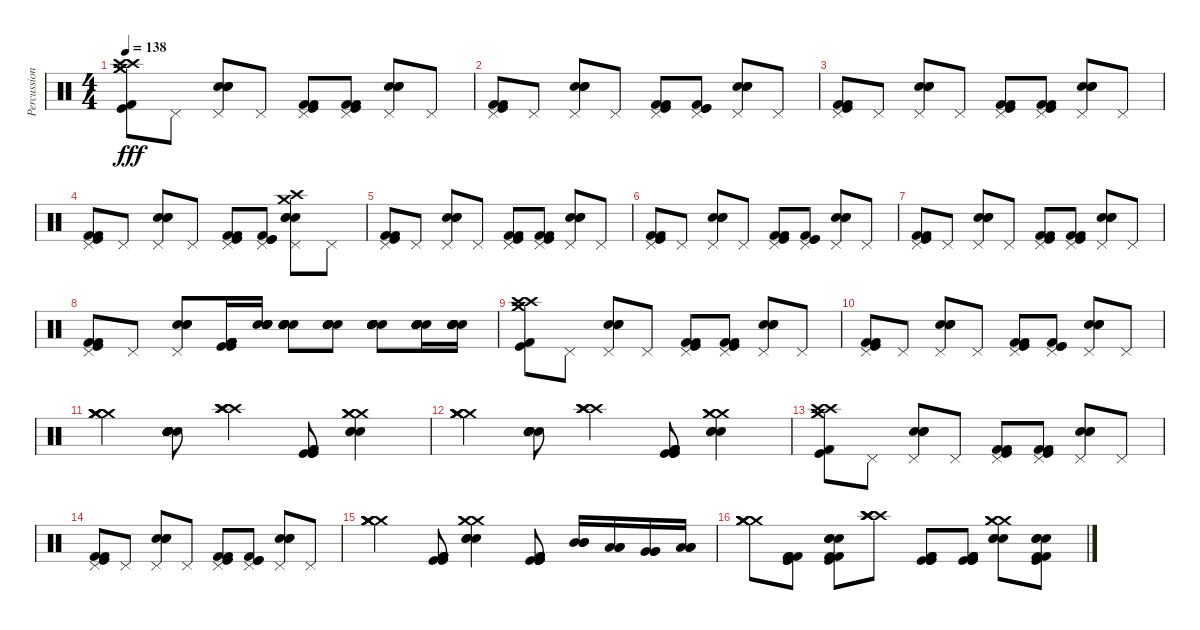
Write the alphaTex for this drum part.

\track ("Percussion" "Percussion") {instrument percussion}
\staff {score}
\articulation defaults
\ts (4 4)
\tempo 138
\clef neutral
\ks c
("Crash high (hit)" "Crash medium (hit)" "Kick (hit)" "Crash high (hit)" "Crash medium (hit)" "Kick (hit) 2").8{dy fff} "Pedal Hi-Hat (hit)".8 ("Pedal Hi-Hat (hit)" "Electric Snare (hit)" "Snare (hit) 2" "Electric Snare (hit)").8 "Pedal Hi-Hat (hit)".8 ("Pedal Hi-Hat (hit)" "Kick (hit) 2" "Kick (hit)" "Kick (hit) 2").8 ("Pedal Hi-Hat (hit)" "Kick (hit) 2" "Kick (hit)" "Kick (hit) 2").8 ("Pedal Hi-Hat (hit)" "Electric Snare (hit)" "Snare (hit) 2" "Electric Snare (hit)").8 "Pedal Hi-Hat (hit)".8 |
("Pedal Hi-Hat (hit)" "Kick (hit) 2" "Kick (hit)" "Kick (hit) 2").8 "Pedal Hi-Hat (hit)".8 ("Pedal Hi-Hat (hit)" "Electric Snare (hit)" "Snare (hit) 2" "Electric Snare (hit)").8 "Pedal Hi-Hat (hit)".8 ("Pedal Hi-Hat (hit)" "Kick (hit) 2" "Kick (hit)" "Kick (hit) 2").8 ("Pedal Hi-Hat (hit)" "Kick (hit) 2" "Kick (hit)" "Kick (hit)").8 ("Pedal Hi-Hat (hit)" "Electric Snare (hit)" "Snare (hit) 2" "Electric Snare (hit)").8 "Pedal Hi-Hat (hit)".8 |
("Pedal Hi-Hat (hit)" "Kick (hit) 2" "Kick (hit)" "Kick (hit) 2").8 "Pedal Hi-Hat (hit)".8 ("Pedal Hi-Hat (hit)" "Electric Snare (hit)" "Snare (hit) 2" "Electric Snare (hit)").8 "Pedal Hi-Hat (hit)".8 ("Pedal Hi-Hat (hit)" "Kick (hit) 2" "Kick (hit)" "Kick (hit) 2").8 ("Pedal Hi-Hat (hit)" "Kick (hit) 2" "Kick (hit)" "Kick (hit) 2").8 ("Pedal Hi-Hat (hit)" "Electric Snare (hit)" "Snare (hit) 2" "Electric Snare (hit)").8 "Pedal Hi-Hat (hit)".8 |
("Pedal Hi-Hat (hit)" "Kick (hit) 2" "Kick (hit)" "Kick (hit) 2").8 "Pedal Hi-Hat (hit)".8 ("Pedal Hi-Hat (hit)" "Electric Snare (hit)" "Snare (hit) 2" "Electric Snare (hit)").8 "Pedal Hi-Hat (hit)".8 ("Pedal Hi-Hat (hit)" "Kick (hit) 2" "Kick (hit)" "Kick (hit) 2").8 ("Pedal Hi-Hat (hit)" "Kick (hit) 2" "Kick (hit)" "Kick (hit)").8 ("Pedal Hi-Hat (hit)" "Crash medium (hit)" "Crash high (hit)" "Electric Snare (hit)" "Snare (hit) 2" "Electric Snare (hit)").8 "Pedal Hi-Hat (hit)".8 |
("Pedal Hi-Hat (hit)" "Kick (hit) 2" "Kick (hit)" "Kick (hit) 2").8 "Pedal Hi-Hat (hit)".8 ("Pedal Hi-Hat (hit)" "Electric Snare (hit)" "Snare (hit) 2" "Electric Snare (hit)").8 "Pedal Hi-Hat (hit)".8 ("Pedal Hi-Hat (hit)" "Kick (hit) 2" "Kick (hit)" "Kick (hit) 2").8 ("Pedal Hi-Hat (hit)" "Kick (hit) 2" "Kick (hit)" "Kick (hit) 2").8 ("Pedal Hi-Hat (hit)" "Electric Snare (hit)" "Snare (hit) 2" "Electric Snare (hit)").8 "Pedal Hi-Hat (hit)".8 |
("Pedal Hi-Hat (hit)" "Kick (hit) 2" "Kick (hit)" "Kick (hit) 2").8 "Pedal Hi-Hat (hit)".8 ("Pedal Hi-Hat (hit)" "Electric Snare (hit)" "Snare (hit) 2" "Electric Snare (hit)").8 "Pedal Hi-Hat (hit)".8 ("Pedal Hi-Hat (hit)" "Kick (hit) 2" "Kick (hit)" "Kick (hit) 2").8 ("Pedal Hi-Hat (hit)" "Kick (hit) 2" "Kick (hit)" "Kick (hit)").8 ("Pedal Hi-Hat (hit)" "Electric Snare (hit)" "Snare (hit) 2" "Electric Snare (hit)").8 "Pedal Hi-Hat (hit)".8 |
("Pedal Hi-Hat (hit)" "Kick (hit) 2" "Kick (hit)" "Kick (hit) 2").8 "Pedal Hi-Hat (hit)".8 ("Pedal Hi-Hat (hit)" "Electric Snare (hit)" "Snare (hit) 2" "Electric Snare (hit)").8 "Pedal Hi-Hat (hit)".8 ("Pedal Hi-Hat (hit)" "Kick (hit) 2" "Kick (hit)" "Kick (hit) 2").8 ("Pedal Hi-Hat (hit)" "Kick (hit) 2" "Kick (hit)" "Kick (hit) 2").8 ("Pedal Hi-Hat (hit)" "Electric Snare (hit)" "Snare (hit) 2" "Electric Snare (hit)").8 "Pedal Hi-Hat (hit)".8 |
("Pedal Hi-Hat (hit)" "Kick (hit) 2" "Kick (hit)" "Kick (hit) 2").8 "Pedal Hi-Hat (hit)".8 ("Pedal Hi-Hat (hit)" "Electric Snare (hit)" "Snare (hit) 2" "Electric Snare (hit)").8 ("Kick (hit) 2" "Kick (hit)" "Kick (hit) 2" "Kick (hit) 2" "Kick (hit)" "Kick (hit) 2").16 ("Electric Snare (hit)" "Snare (hit) 2" "Electric Snare (hit)" "Electric Snare (hit)" "Snare (hit) 2" "Electric Snare (hit)").16 ("Electric Snare (hit)" "Snare (hit) 2" "Electric Snare (hit)" "Electric Snare (hit)" "Snare (hit) 2" "Electric Snare (hit)").8 ("Electric Snare (hit)" "Snare (hit) 2" "Electric Snare (hit)" "Electric Snare (hit)" "Snare (hit) 2" "Electric Snare (hit)").8 ("Electric Snare (hit)" "Snare (hit) 2" "Electric Snare (hit)" "Electric Snare (hit)" "Snare (hit) 2" "Electric Snare (hit)").8 ("Electric Snare (hit)" "Snare (hit) 2" "Electric Snare (hit)" "Electric Snare (hit)" "Snare (hit) 2" "Electric Snare (hit)").16 ("Electric Snare (hit)" "Snare (hit) 2" "Electric Snare (hit)" "Electric Snare (hit)" "Snare (hit) 2" "Electric Snare (hit)").16 |
("Crash high (hit)" "Crash medium (hit)" "Kick (hit)" "Crash high (hit)" "Crash medium (hit)" "Kick (hit) 2").8 "Pedal Hi-Hat (hit)".8 ("Pedal Hi-Hat (hit)" "Electric Snare (hit)" "Snare (hit) 2" "Electric Snare (hit)").8 "Pedal Hi-Hat (hit)".8 ("Pedal Hi-Hat (hit)" "Kick (hit) 2" "Kick (hit)" "Kick (hit) 2").8 ("Pedal Hi-Hat (hit)" "Kick (hit) 2" "Kick (hit)" "Kick (hit) 2").8 ("Pedal Hi-Hat (hit)" "Electric Snare (hit)" "Snare (hit) 2" "Electric Snare (hit)").8 "Pedal Hi-Hat (hit)".8 |
("Pedal Hi-Hat (hit)" "Kick (hit) 2" "Kick (hit)" "Kick (hit) 2").8 "Pedal Hi-Hat (hit)".8 ("Pedal Hi-Hat (hit)" "Electric Snare (hit)" "Snare (hit) 2" "Electric Snare (hit)").8 "Pedal Hi-Hat (hit)".8 ("Pedal Hi-Hat (hit)" "Kick (hit) 2" "Kick (hit)" "Kick (hit) 2").8 ("Pedal Hi-Hat (hit)" "Kick (hit) 2" "Kick (hit)" "Kick (hit)").8 ("Pedal Hi-Hat (hit)" "Electric Snare (hit)" "Snare (hit) 2" "Electric Snare (hit)").8 "Pedal Hi-Hat (hit)".8 |
("Crash medium (hit)" "Crash medium (hit)" "Crash medium (hit)" "Crash medium (hit)" "Crash medium (hit)" "Crash medium (hit)").4 ("Electric Snare (hit)" "Snare (hit) 2" "Electric Snare (hit)" "Electric Snare (hit)" "Snare (hit) 2" "Electric Snare (hit)").8 ("Crash high (hit)" "Crash high (hit)" "Crash high (hit)" "Crash high (hit)" "Crash high (hit)" "Crash high (hit)").4 ("Kick (hit)" "Kick (hit) 2" "Kick (hit)" "Kick (hit) 2" "Kick (hit) 2" "Kick (hit)").8 ("Crash medium (hit)" "Crash medium (hit)" "Crash medium (hit)" "Electric Snare (hit)" "Electric Snare (hit)" "Electric Snare (hit)").4 |
("Crash medium (hit)" "Crash medium (hit)" "Crash medium (hit)" "Crash medium (hit)" "Crash medium (hit)" "Crash medium (hit)").4 ("Electric Snare (hit)" "Snare (hit) 2" "Electric Snare (hit)" "Electric Snare (hit)" "Snare (hit) 2" "Electric Snare (hit)").8 ("Crash high (hit)" "Crash high (hit)" "Crash high (hit)" "Crash high (hit)" "Crash high (hit)" "Crash high (hit)").4 ("Kick (hit)" "Kick (hit) 2" "Kick (hit)" "Kick (hit) 2" "Kick (hit) 2" "Kick (hit)").8 ("Crash medium (hit)" "Crash medium (hit)" "Crash medium (hit)" "Electric Snare (hit)" "Electric Snare (hit)" "Electric Snare (hit)").4 |
("Crash high (hit)" "Crash medium (hit)" "Kick (hit)" "Crash high (hit)" "Crash medium (hit)" "Kick (hit) 2").8 "Pedal Hi-Hat (hit)".8 ("Pedal Hi-Hat (hit)" "Electric Snare (hit)" "Snare (hit) 2" "Electric Snare (hit)").8 "Pedal Hi-Hat (hit)".8 ("Pedal Hi-Hat (hit)" "Kick (hit) 2" "Kick (hit)" "Kick (hit) 2").8 ("Pedal Hi-Hat (hit)" "Kick (hit) 2" "Kick (hit)" "Kick (hit) 2").8 ("Pedal Hi-Hat (hit)" "Electric Snare (hit)" "Snare (hit) 2" "Electric Snare (hit)").8 "Pedal Hi-Hat (hit)".8 |
("Pedal Hi-Hat (hit)" "Kick (hit) 2" "Kick (hit)" "Kick (hit) 2").8 "Pedal Hi-Hat (hit)".8 ("Pedal Hi-Hat (hit)" "Electric Snare (hit)" "Snare (hit) 2" "Electric Snare (hit)").8 "Pedal Hi-Hat (hit)".8 ("Pedal Hi-Hat (hit)" "Kick (hit) 2" "Kick (hit)" "Kick (hit) 2").8 ("Pedal Hi-Hat (hit)" "Kick (hit) 2" "Kick (hit)" "Kick (hit)").8 ("Pedal Hi-Hat (hit)" "Electric Snare (hit)" "Snare (hit) 2" "Electric Snare (hit)").8 "Pedal Hi-Hat (hit)".8 |
("Crash medium (hit)" "Crash medium (hit)" "Crash medium (hit)" "Crash medium (hit)" "Crash medium (hit)" "Crash medium (hit)").4 ("Kick (hit) 2" "Kick (hit)" "Kick (hit) 2" "Kick (hit) 2" "Kick (hit)" "Kick (hit) 2").8 ("Crash medium (hit)" "Crash medium (hit)" "Electric Snare (hit)" "Crash medium (hit)" "Snare (hit) 2" "Electric Snare (hit)").4 ("Kick (hit)" "Kick (hit) 2" "Kick (hit)" "Kick (hit)" "Kick (hit) 2" "Kick (hit) 2").8 ("Mid Tom (hit)" "Mid Tom (hit)" "Mid Tom (hit)").16 ("Low Tom (hit)" "Low Tom (hit)" "Low Tom (hit)").16 ("Very Low Tom (hit)" "Very Low Tom (hit)" "Very Low Tom (hit)").16 ("Low Floor Tom (hit)" "Low Floor Tom (hit)" "Low Floor Tom (hit)").16 |
("Crash medium (hit)" "Crash medium (hit)" "Crash medium (hit)" "Crash medium (hit)" "Crash medium (hit)" "Crash medium (hit)").8 ("Kick (hit) 2" "Kick (hit) 2" "Kick (hit)" "Kick (hit)" "Kick (hit) 2" "Kick (hit) 2").8 ("Kick (hit) 2" "Kick (hit) 2" "Kick (hit)" "Electric Snare (hit)" "Snare (hit) 2" "Electric Snare (hit)").8 ("Crash high (hit)" "Crash high (hit)" "Crash high (hit)" "Crash high (hit)" "Crash high (hit)" "Crash high (hit)").8 ("Kick (hit)" "Kick (hit) 2" "Kick (hit)" "Kick (hit) 2" "Kick (hit) 2" "Kick (hit)").8 ("Kick (hit)" "Kick (hit) 2" "Kick (hit)" "Kick (hit) 2" "Kick (hit) 2" "Kick (hit)").8 ("Crash medium (hit)" "Crash medium (hit)" "Crash medium (hit)" "Electric Snare (hit)" "Electric Snare (hit)" "Electric Snare (hit)").8 ("Electric Snare (hit)" "Electric Snare (hit)" "Electric Snare (hit)" "Kick (hit) 2" "Kick (hit)" "Kick (hit) 2").8
